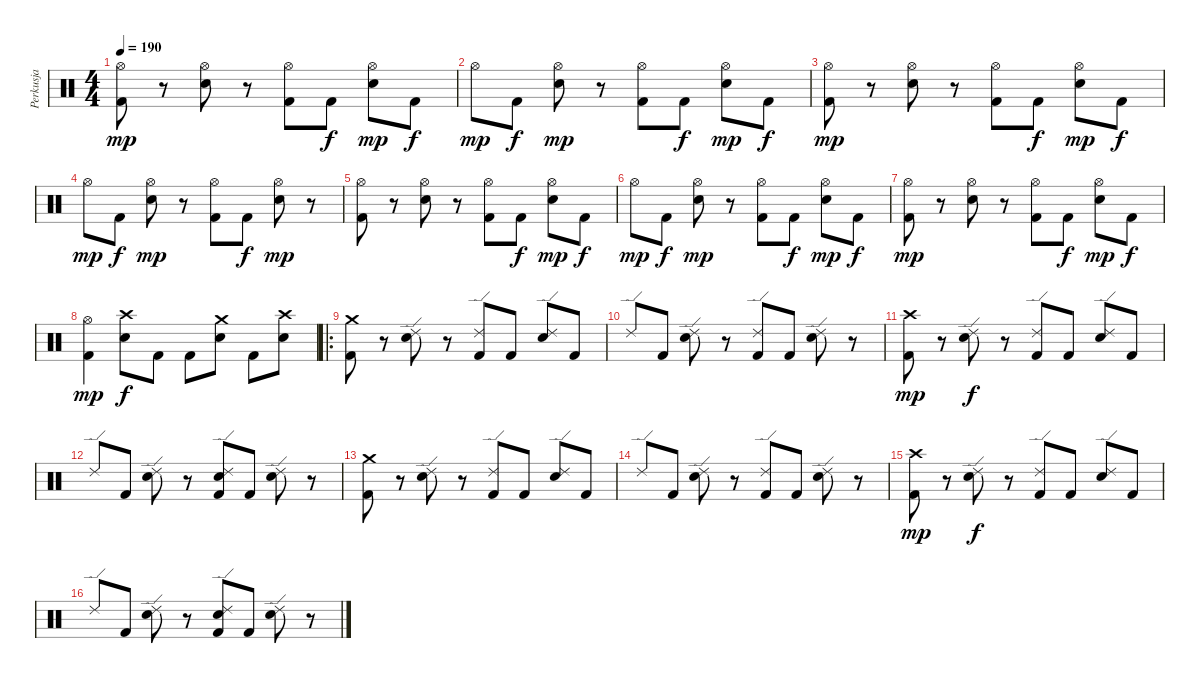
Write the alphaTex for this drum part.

\track ("Perkusja" "Perkusja") {instrument percussion}
\staff {score}
\articulation defaults
\ts (4 4)
\tempo 190
\clef neutral
\ks c
("Hi-Hat (open)" "Kick (hit) 2").8{dy mp} r.8 ("Hi-Hat (open)" "Snare (hit) 2").8 r.8 ("Hi-Hat (open)" "Kick (hit) 2").8 "Kick (hit) 2".8{dy f} ("Hi-Hat (open)" "Snare (hit) 2").8{dy mp} "Kick (hit) 2".8{dy f} |
"Hi-Hat (open)".8{dy mp} "Kick (hit) 2".8{dy f} ("Hi-Hat (open)" "Snare (hit) 2").8{dy mp} r.8 ("Hi-Hat (open)" "Kick (hit) 2").8 "Kick (hit) 2".8{dy f} ("Hi-Hat (open)" "Snare (hit) 2").8{dy mp} "Kick (hit) 2".8{dy f} |
("Hi-Hat (open)" "Kick (hit) 2").8{dy mp} r.8 ("Hi-Hat (open)" "Snare (hit) 2").8 r.8 ("Hi-Hat (open)" "Kick (hit) 2").8 "Kick (hit) 2".8{dy f} ("Hi-Hat (open)" "Snare (hit) 2").8{dy mp} "Kick (hit) 2".8{dy f} |
"Hi-Hat (open)".8{dy mp} "Kick (hit) 2".8{dy f} ("Hi-Hat (open)" "Snare (hit) 2").8{dy mp} r.8 ("Hi-Hat (open)" "Kick (hit) 2").8 "Kick (hit) 2".8{dy f} ("Hi-Hat (open)" "Snare (hit) 2").8{dy mp} r.8 |
("Hi-Hat (open)" "Kick (hit) 2").8 r.8 ("Hi-Hat (open)" "Snare (hit) 2").8 r.8 ("Hi-Hat (open)" "Kick (hit) 2").8 "Kick (hit) 2".8{dy f} ("Hi-Hat (open)" "Snare (hit) 2").8{dy mp} "Kick (hit) 2".8{dy f} |
"Hi-Hat (open)".8{dy mp} "Kick (hit) 2".8{dy f} ("Hi-Hat (open)" "Snare (hit) 2").8{dy mp} r.8 ("Hi-Hat (open)" "Kick (hit) 2").8 "Kick (hit) 2".8{dy f} ("Hi-Hat (open)" "Snare (hit) 2").8{dy mp} "Kick (hit) 2".8{dy f} |
("Hi-Hat (open)" "Kick (hit) 2").8{dy mp} r.8 ("Hi-Hat (open)" "Snare (hit) 2").8 r.8 ("Hi-Hat (open)" "Kick (hit) 2").8 "Kick (hit) 2".8{dy f} ("Hi-Hat (open)" "Snare (hit) 2").8{dy mp} "Kick (hit) 2".8{dy f} |
("Hi-Hat (open)" "Kick (hit) 2").4{dy mp} ("Crash high (hit)" "Snare (hit) 2").8{dy f} "Kick (hit) 2".8 "Kick (hit) 2".8 ("Crash medium (hit)" "Snare (hit) 2").8 "Kick (hit) 2".8 ("Crash high (hit)" "Snare (hit) 2").8 |
\ro
("Crash medium (hit)" "Kick (hit) 2").8 r.8 ("Ride (edge) 2" "Snare (hit) 2").8 r.8 ("Ride (edge) 2" "Kick (hit) 2").8 "Kick (hit) 2".8 ("Ride (edge) 2" "Snare (hit) 2").8 "Kick (hit) 2".8 |
"Ride (edge) 2".8 "Kick (hit) 2".8 ("Ride (edge) 2" "Snare (hit) 2").8 r.8 ("Ride (edge) 2" "Kick (hit) 2").8 "Kick (hit) 2".8 ("Ride (edge) 2" "Snare (hit) 2").8 r.8 |
("Crash high (hit)" "Kick (hit) 2").8{dy mp} r.8 ("Ride (edge) 2" "Snare (hit) 2").8{dy f} r.8 ("Ride (edge) 2" "Kick (hit) 2").8 "Kick (hit) 2".8 ("Ride (edge) 2" "Snare (hit) 2").8 "Kick (hit) 2".8 |
"Ride (edge) 2".8 "Kick (hit) 2".8 ("Ride (edge) 2" "Snare (hit) 2").8 r.8 ("Ride (edge) 2" "Snare (hit) 2" "Kick (hit) 2").8 "Kick (hit) 2".8 ("Ride (edge) 2" "Snare (hit) 2").8 r.8 |
("Crash medium (hit)" "Kick (hit) 2").8 r.8 ("Ride (edge) 2" "Snare (hit) 2").8 r.8 ("Ride (edge) 2" "Kick (hit) 2").8 "Kick (hit) 2".8 ("Ride (edge) 2" "Snare (hit) 2").8 "Kick (hit) 2".8 |
"Ride (edge) 2".8 "Kick (hit) 2".8 ("Ride (edge) 2" "Snare (hit) 2").8 r.8 ("Ride (edge) 2" "Kick (hit) 2").8 "Kick (hit) 2".8 ("Ride (edge) 2" "Snare (hit) 2").8 r.8 |
("Crash high (hit)" "Kick (hit) 2").8{dy mp} r.8 ("Ride (edge) 2" "Snare (hit) 2").8{dy f} r.8 ("Ride (edge) 2" "Kick (hit) 2").8 "Kick (hit) 2".8 ("Ride (edge) 2" "Snare (hit) 2").8 "Kick (hit) 2".8 |
"Ride (edge) 2".8 "Kick (hit) 2".8 ("Ride (edge) 2" "Snare (hit) 2").8 r.8 ("Ride (edge) 2" "Snare (hit) 2" "Kick (hit) 2").8 "Kick (hit) 2".8 ("Ride (edge) 2" "Snare (hit) 2").8 r.8
